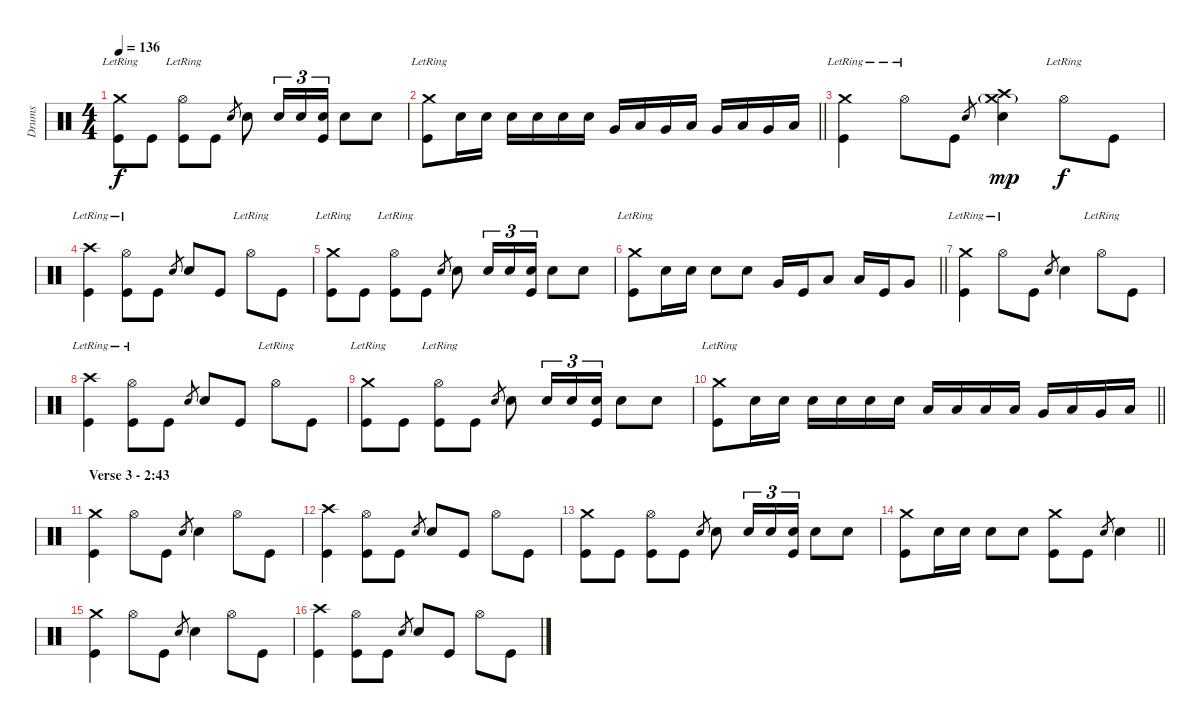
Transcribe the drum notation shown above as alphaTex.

\track ("Drums" "Drums") {instrument percussion}
\staff {score}
\articulation defaults
\ts (4 4)
\tempo 136
\clef neutral
\ks c
("Crash medium (hit)"{lr} "Kick (hit)").8{dy f} "Kick (hit)".8 ("Hi-Hat (open)"{lr} "Kick (hit)").8 "Kick (hit)".8 "Snare (hit) 2".8{gr} "Snare (hit) 2".8 "Snare (hit) 2".16{tu (3 2)} "Snare (hit) 2".16{tu (3 2)} ("Snare (hit) 2" "Kick (hit)").16{tu (3 2)} "Snare (hit) 2".8 "Snare (hit) 2".8 |
\barLineRight lightlight
("Crash medium (hit)"{lr} "Kick (hit)").8 "Snare (hit) 2".16 "Snare (hit) 2".16 "Snare (hit) 2".16 "Snare (hit) 2".16 "Snare (hit) 2".16 "Snare (hit) 2".16 "Very Low Tom (hit)".16 "Low Tom (hit)".16 "Very Low Tom (hit)".16 "Low Tom (hit)".16 "Very Low Tom (hit)".16 "Low Floor Tom (hit)".16 "Very Low Tom (hit)".16 "Low Floor Tom (hit)".16 |
("Crash medium (hit)"{lr} "Kick (hit)").4 "Hi-Hat (open)"{lr}.8 "Kick (hit)".8 "Snare (hit) 2".8{gr} ("Crash medium (hit)"{g} "Crash high (hit)" "Snare (hit) 2").4{dy mp} "Hi-Hat (open)"{lr}.8{dy f} "Kick (hit)".8 |
("Crash high (hit)"{lr} "Kick (hit)").4 ("Hi-Hat (open)"{lr} "Kick (hit)").8 "Kick (hit)".8 "Snare (hit) 2".8{gr} "Snare (hit) 2".8 "Kick (hit)".8 "Hi-Hat (open)"{lr}.8 "Kick (hit)".8 |
("Crash medium (hit)"{lr} "Kick (hit)").8 "Kick (hit)".8 ("Hi-Hat (open)"{lr} "Kick (hit)").8 "Kick (hit)".8 "Snare (hit) 2".8{gr} "Snare (hit) 2".8 "Snare (hit) 2".16{tu (3 2)} "Snare (hit) 2".16{tu (3 2)} ("Snare (hit) 2" "Kick (hit)").16{tu (3 2)} "Snare (hit) 2".8 "Snare (hit) 2".8 |
\barLineRight lightlight
("Crash medium (hit)"{lr} "Kick (hit)").8 "Snare (hit) 2".16 "Snare (hit) 2".16 "Snare (hit) 2".8 "Snare (hit) 2".8 "Very Low Tom (hit)".16 "Kick (hit)".16 "Low Floor Tom (hit)".8 "Low Tom (hit)".16 "Kick (hit)".16 "Very Low Tom (hit)".8 |
("Crash medium (hit)"{lr} "Kick (hit)").4 "Hi-Hat (open)"{lr}.8 "Kick (hit)".8 "Snare (hit) 2".8{gr} "Snare (hit) 2".4 "Hi-Hat (open)"{lr}.8 "Kick (hit)".8 |
("Crash high (hit)"{lr} "Kick (hit)").4 ("Hi-Hat (open)"{lr} "Kick (hit)").8 "Kick (hit)".8 "Snare (hit) 2".8{gr} "Snare (hit) 2".8 "Kick (hit)".8 "Hi-Hat (open)"{lr}.8 "Kick (hit)".8 |
("Crash medium (hit)"{lr} "Kick (hit)").8 "Kick (hit)".8 ("Hi-Hat (open)"{lr} "Kick (hit)").8 "Kick (hit)".8 "Snare (hit) 2".8{gr} "Snare (hit) 2".8 "Snare (hit) 2".16{tu (3 2)} "Snare (hit) 2".16{tu (3 2)} ("Snare (hit) 2" "Kick (hit)").16{tu (3 2)} "Snare (hit) 2".8 "Snare (hit) 2".8 |
\barLineRight lightlight
("Crash medium (hit)"{lr} "Kick (hit)").8 "Snare (hit) 2".16 "Snare (hit) 2".16 "Snare (hit) 2".16 "Snare (hit) 2".16 "Snare (hit) 2".16 "Snare (hit) 2".16 "Low Tom (hit)".16 "Low Tom (hit)".16 "Low Tom (hit)".16 "Low Tom (hit)".16 "Very Low Tom (hit)".16 "Low Floor Tom (hit)".16 "Very Low Tom (hit)".16 "Low Floor Tom (hit)".16 |
\section ("" "Verse 3 - 2:43")
("Crash medium (hit)" "Kick (hit)").4 "Hi-Hat (open)".8 "Kick (hit)".8 "Snare (hit) 2".8{gr} "Snare (hit) 2".4 "Hi-Hat (open)".8 "Kick (hit)".8 |
("Crash high (hit)" "Kick (hit)").4 ("Hi-Hat (open)" "Kick (hit)").8 "Kick (hit)".8 "Snare (hit) 2".8{gr} "Snare (hit) 2".8 "Kick (hit)".8 "Hi-Hat (open)".8 "Kick (hit)".8 |
("Crash medium (hit)" "Kick (hit)").8 "Kick (hit)".8 ("Hi-Hat (open)" "Kick (hit)").8 "Kick (hit)".8 "Snare (hit) 2".8{gr} "Snare (hit) 2".8 "Snare (hit) 2".16{tu (3 2)} "Snare (hit) 2".16{tu (3 2)} ("Snare (hit) 2" "Kick (hit)").16{tu (3 2)} "Snare (hit) 2".8 "Snare (hit) 2".8 |
\barLineRight lightlight
("Crash medium (hit)" "Kick (hit)").8 "Snare (hit) 2".16 "Snare (hit) 2".16 "Snare (hit) 2".8 "Snare (hit) 2".8 ("Crash medium (hit)" "Kick (hit)").8 "Kick (hit)".8 "Snare (hit) 2".8{gr} "Snare (hit) 2".4 |
("Crash medium (hit)" "Kick (hit)").4 "Hi-Hat (open)".8 "Kick (hit)".8 "Snare (hit) 2".8{gr} "Snare (hit) 2".4 "Hi-Hat (open)".8 "Kick (hit)".8 |
("Crash high (hit)" "Kick (hit)").4 ("Hi-Hat (open)" "Kick (hit)").8 "Kick (hit)".8 "Snare (hit) 2".8{gr} "Snare (hit) 2".8 "Kick (hit)".8 "Hi-Hat (open)".8 "Kick (hit)".8
